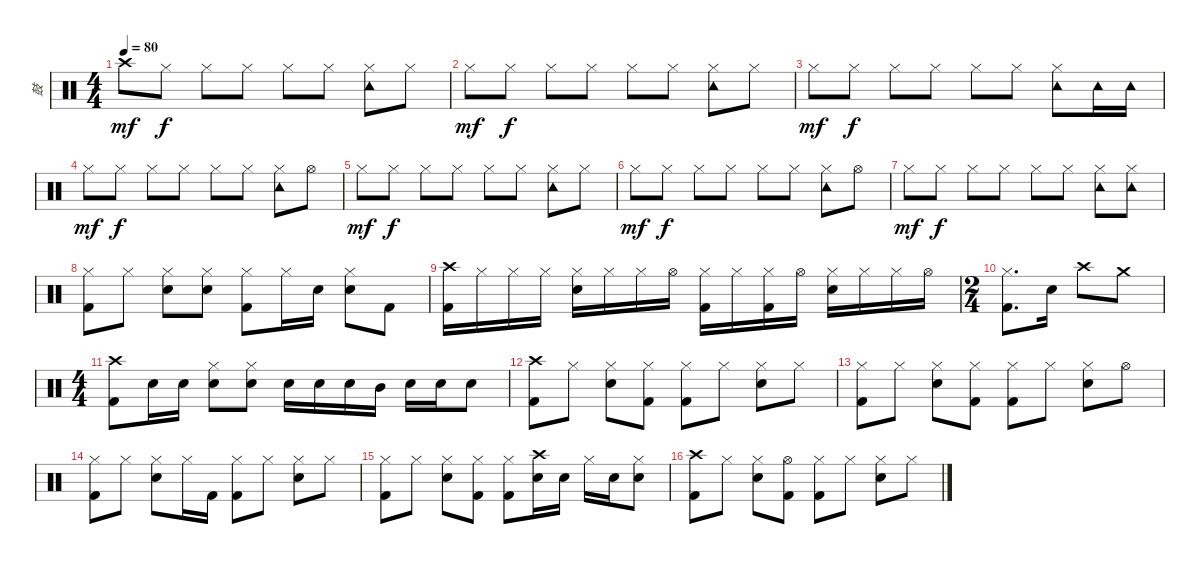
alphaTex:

\track ("鼓" "鼓") {instrument percussion}
\staff {score}
\articulation defaults
\ts (4 4)
\tempo 80
\clef neutral
\ks c "Crash high (hit)".8{dy mf} "Hi-Hat (closed)".8{dy f} "Hi-Hat (closed)".8 "Hi-Hat (closed)".8 "Hi-Hat (closed)".8 "Hi-Hat (closed)".8
("Hi-Hat (closed)" "Tambourine (hit)").8 "Hi-Hat (closed)".8 |
"Hi-Hat (closed)".8{dy mf} "Hi-Hat (closed)".8{dy f} "Hi-Hat (closed)".8 "Hi-Hat (closed)".8 "Hi-Hat (closed)".8 "Hi-Hat (closed)".8 ("Hi-Hat (closed)" "Tambourine (hit)").8 "Hi-Hat (closed)".8 |
"Hi-Hat (closed)".8{dy mf} "Hi-Hat (closed)".8{dy f} "Hi-Hat (closed)".8 "Hi-Hat (closed)".8 "Hi-Hat (closed)".8 "Hi-Hat (closed)".8 ("Hi-Hat (closed)" "Tambourine (hit)").8 "Tambourine (hit)".16 "Tambourine (hit)".16 |
"Hi-Hat (closed)".8{dy mf} "Hi-Hat (closed)".8{dy f} "Hi-Hat (closed)".8 "Hi-Hat (closed)".8 "Hi-Hat (closed)".8 "Hi-Hat (closed)".8 ("Hi-Hat (closed)" "Tambourine (hit)").8 "Hi-Hat (open)".8 |
"Hi-Hat (closed)".8{dy mf} "Hi-Hat (closed)".8{dy f} "Hi-Hat (closed)".8 "Hi-Hat (closed)".8 "Hi-Hat (closed)".8 "Hi-Hat (closed)".8 ("Hi-Hat (closed)" "Tambourine (hit)").8 "Hi-Hat (closed)".8 |
"Hi-Hat (closed)".8{dy mf} "Hi-Hat (closed)".8{dy f} "Hi-Hat (closed)".8 "Hi-Hat (closed)".8 "Hi-Hat (closed)".8 "Hi-Hat (closed)".8 ("Hi-Hat (closed)" "Tambourine (hit)").8 "Hi-Hat (open)".8 |
"Hi-Hat (closed)".8{dy mf} "Hi-Hat (closed)".8{dy f} "Hi-Hat (closed)".8 "Hi-Hat (closed)".8 "Hi-Hat (closed)".8 "Hi-Hat (closed)".8 ("Hi-Hat (closed)" "Tambourine (hit)").8 ("Hi-Hat (closed)" "Tambourine (hit)").8 |
("Hi-Hat (closed)" "Kick (hit) 2").8 "Hi-Hat (closed)".8 ("Hi-Hat (closed)" "Snare (hit) 2").8 ("Hi-Hat (closed)" "Snare (hit) 2").8 ("Hi-Hat (closed)" "Kick (hit) 2").8 "Hi-Hat (closed)".16 "Snare (hit) 2".16 ("Hi-Hat (closed)" "Snare (hit) 2").8 "Kick (hit) 2".8 |
("Crash high (hit)" "Kick (hit) 2").16 "Hi-Hat (closed)".16 "Hi-Hat (closed)".16 "Hi-Hat (closed)".16 ("Hi-Hat (closed)" "Snare (hit) 2").16 "Hi-Hat (closed)".16 "Hi-Hat (closed)".16 "Hi-Hat (open)".16 ("Hi-Hat (closed)" "Kick (hit) 2").16 "Hi-Hat (closed)".16 ("Hi-Hat (closed)" "Kick (hit) 2").16 "Hi-Hat (open)".16 ("Hi-Hat (closed)" "Snare (hit) 2").16 "Hi-Hat (closed)".16 "Hi-Hat (closed)".16 "Hi-Hat (open)".16 |
\ts (2 4)
("Hi-Hat (closed)" "Kick (hit) 2").8{d} "Snare (hit) 2".16 "Crash high (hit)".8 "Crash medium (hit)".8 |
\ts (4 4)
("Crash high (hit)" "Kick (hit) 2").8 "Snare (hit) 2".16 "Snare (hit) 2".16 ("Hi-Hat (closed)" "Snare (hit) 2").8 ("Hi-Hat (closed)" "Snare (hit) 2").8 "Snare (hit) 2".16 "Snare (hit) 2".16 "Snare (hit) 2".16 "Mid Tom (hit)".16 "Snare (hit) 2".16 "Snare (hit) 2".16 "Snare (hit) 2".8 |
("Crash high (hit)" "Kick (hit) 2").8 "Hi-Hat (closed)".8 ("Hi-Hat (closed)" "Snare (hit) 2").8 ("Hi-Hat (closed)" "Kick (hit) 2").8 ("Hi-Hat (closed)" "Kick (hit) 2").8 "Hi-Hat (closed)".8 ("Hi-Hat (closed)" "Snare (hit) 2").8 "Hi-Hat (closed)".8 |
("Hi-Hat (closed)" "Kick (hit) 2").8 "Hi-Hat (closed)".8 ("Hi-Hat (closed)" "Snare (hit) 2").8 ("Hi-Hat (closed)" "Kick (hit) 2").8 ("Hi-Hat (closed)" "Kick (hit) 2").8 "Hi-Hat (closed)".8 ("Hi-Hat (closed)" "Snare (hit) 2").8 "Hi-Hat (open)".8 |
("Hi-Hat (closed)" "Kick (hit) 2").8 "Hi-Hat (closed)".8 ("Hi-Hat (closed)" "Snare (hit) 2").8 "Hi-Hat (closed)".16 "Kick (hit) 2".16 ("Hi-Hat (closed)" "Kick (hit) 2").8 "Hi-Hat (closed)".8 ("Hi-Hat (closed)" "Snare (hit) 2").8 "Hi-Hat (closed)".8 |
("Hi-Hat (closed)" "Kick (hit) 2").8 "Hi-Hat (closed)".8 ("Hi-Hat (closed)" "Snare (hit) 2").8 ("Hi-Hat (closed)" "Kick (hit) 2").8 ("Hi-Hat (closed)" "Kick (hit) 2").8 ("Crash high (hit)" "Snare (hit) 2").16 "Snare (hit) 2".16 "Hi-Hat (closed)".16 "Snare (hit) 2".16 ("Hi-Hat (closed)" "Snare (hit) 2").8 |
("Crash high (hit)" "Kick (hit) 2").8 "Hi-Hat (closed)".8 ("Hi-Hat (closed)" "Snare (hit) 2").8 ("Hi-Hat (open)" "Kick (hit) 2").8 ("Hi-Hat (closed)" "Kick (hit) 2").8 "Hi-Hat (closed)".8 ("Hi-Hat (closed)" "Snare (hit) 2").8 "Hi-Hat (closed)".8
